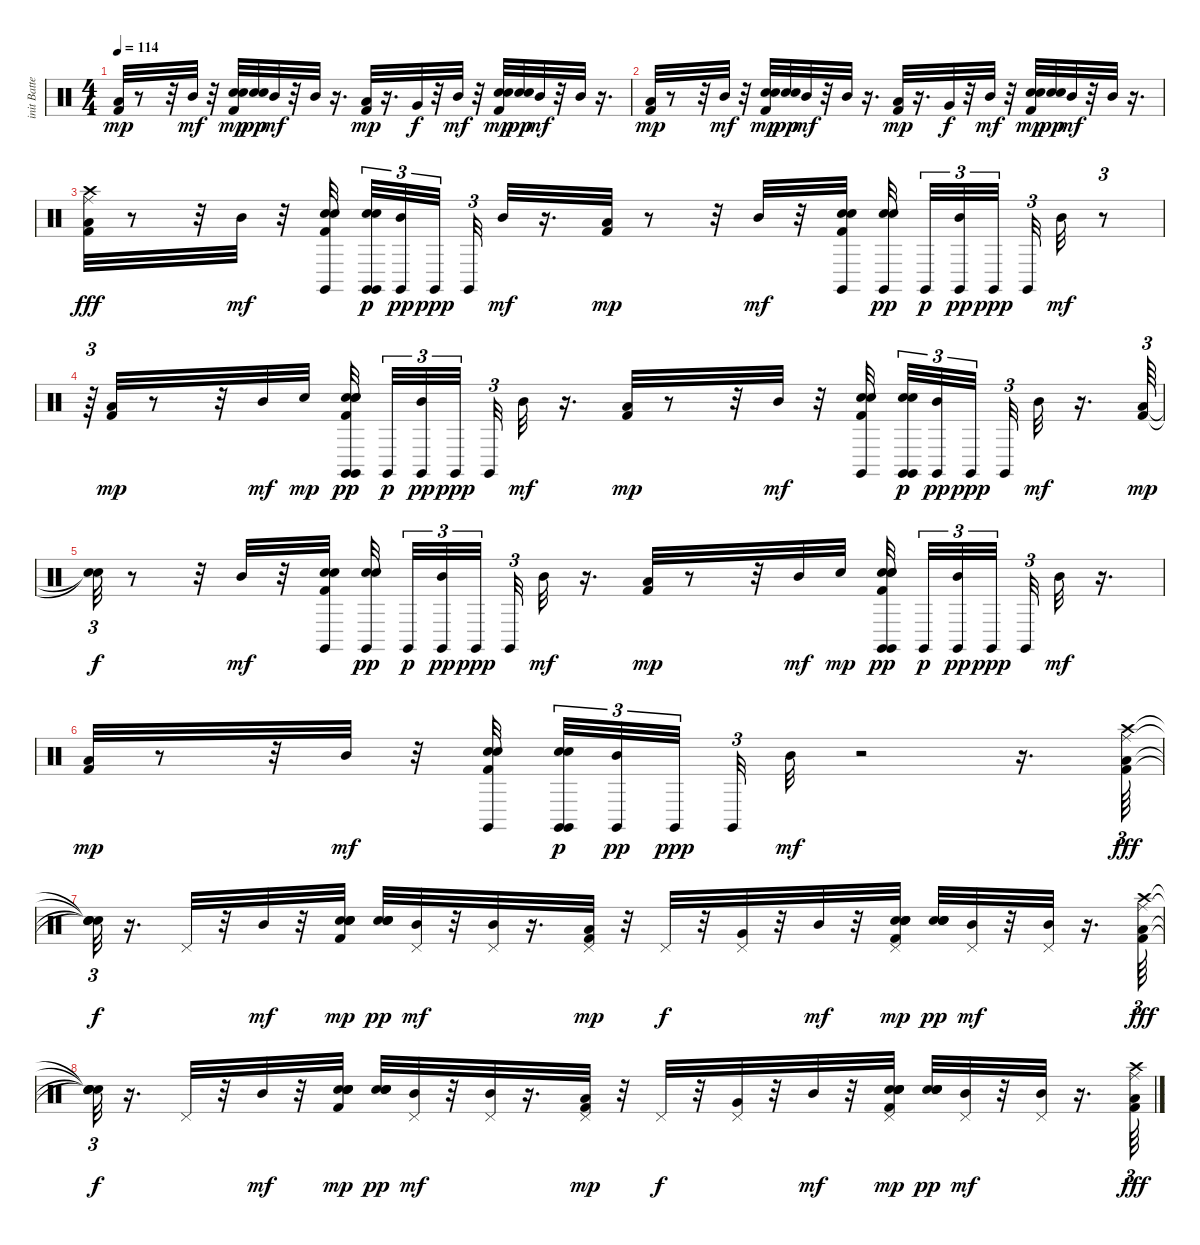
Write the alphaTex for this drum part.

\track ("init Batterie" "init Batte") {instrument percussion}
\staff {score}
\articulation defaults
\ts (4 4)
\tempo 114
\clef neutral
\ks c
("Kick (hit) 2" "Low Tom (hit)").32{dy mp} r.8 r.32 "Mid Tom (hit)".32{dy mf} r.32 ("Hand Clap (hit)" "Kick (hit) 2" "Hand Clap (hit)").32{dy mp} ("Hand Clap (hit)" "Hand Clap (hit)").32{dy pp} "Mid Tom (hit)".32{dy mf} r.32 "Mid Tom (hit)".32 r.16{d} ("Kick (hit) 2" "Low Tom (hit)").32{dy mp} r.16{d} "Very Low Tom (hit)".32{dy f} r.32 "Mid Tom (hit)".32{dy mf} r.32 ("Hand Clap (hit)" "Kick (hit) 2" "Hand Clap (hit)").32{dy mp} ("Hand Clap (hit)" "Hand Clap (hit)").32{dy pp} "Mid Tom (hit)".32{dy mf} r.32 "Mid Tom (hit)".32 r.16{d} |
("Kick (hit) 2" "Low Tom (hit)").32{dy mp} r.8 r.32 "Mid Tom (hit)".32{dy mf} r.32 ("Hand Clap (hit)" "Kick (hit) 2" "Hand Clap (hit)").32{dy mp} ("Hand Clap (hit)" "Hand Clap (hit)").32{dy pp} "Mid Tom (hit)".32{dy mf} r.32 "Mid Tom (hit)".32 r.16{d} ("Kick (hit) 2" "Low Tom (hit)").32{dy mp} r.16{d} "Very Low Tom (hit)".32{dy f} r.32 "Mid Tom (hit)".32{dy mf} r.32 ("Hand Clap (hit)" "Kick (hit) 2" "Hand Clap (hit)").32{dy mp} ("Hand Clap (hit)" "Hand Clap (hit)").32{dy pp} "Mid Tom (hit)".32{dy mf} r.32 "Mid Tom (hit)".32 r.16{d} |
("Kick (hit) 2" "Low Tom (hit)" "Crash high (hit)" "Ride (middle)").32{dy fff} r.8 r.32 "Mid Tom (hit)".32{dy mf} r.32 ("Hand Clap (hit)" "Kick (hit) 2" "Hand Clap (hit)" "Claves (hit)").32 ("Hand Clap (hit)" "Claves (hit)" "Hand Clap (hit)" "Claves (hit)").32{tu (3 2) dy p} ("Mid Tom (hit)" "Claves (hit)").32{tu (3 2) dy pp} "Claves (hit)".32{tu (3 2) dy ppp} "Claves (hit)".32{tu (3 2)} "Mid Tom (hit)".32{dy mf} r.16{d} ("Kick (hit) 2" "Low Tom (hit)").32{dy mp} r.8 r.32 "Mid Tom (hit)".32{dy mf} r.32 ("Hand Clap (hit)" "Kick (hit) 2" "Hand Clap (hit)" "Claves (hit)").32 ("Hand Clap (hit)" "Claves (hit)" "Hand Clap (hit)").32{dy pp} "Claves (hit)".32{tu (3 2) dy p} ("Mid Tom (hit)" "Claves (hit)").32{tu (3 2) dy pp} "Claves (hit)".32{tu (3 2) dy ppp} "Claves (hit)".32{tu (3 2)} "Mid Tom (hit)".32{dy mf} r.8{tu (3 2)} |
r.64{tu (3 2)} ("Kick (hit) 2" "Low Tom (hit)").32{dy mp} r.8 r.32 "Mid Tom (hit)".32{dy mf} "Hand Clap (hit)".32{dy mp} ("Kick (hit) 2" "Hand Clap (hit)" "Claves (hit)" "Hand Clap (hit)" "Claves (hit)" "Hand Clap (hit)").32{dy pp} "Claves (hit)".32{tu (3 2) dy p} ("Mid Tom (hit)" "Claves (hit)").32{tu (3 2) dy pp} "Claves (hit)".32{tu (3 2) dy ppp} "Claves (hit)".32{tu (3 2)} "Mid Tom (hit)".32{dy mf} r.16{d} ("Kick (hit) 2" "Low Tom (hit)").32{dy mp} r.8 r.32 "Mid Tom (hit)".32{dy mf} r.32 ("Hand Clap (hit)" "Kick (hit) 2" "Hand Clap (hit)" "Claves (hit)").32 ("Hand Clap (hit)" "Claves (hit)" "Hand Clap (hit)" "Claves (hit)").32{tu (3 2) dy p} ("Mid Tom (hit)" "Claves (hit)").32{tu (3 2) dy pp} "Claves (hit)".32{tu (3 2) dy ppp} "Claves (hit)".32{tu (3 2)} "Mid Tom (hit)".32{dy mf} r.16{d} ("Kick (hit) 2" "Low Tom (hit)").64{tu (3 2) dy mp} |
("Snare (hit)"{t} "Snare (hit)"{t}).32{tu (3 2) dy f} r.8 r.32 "Mid Tom (hit)".32{dy mf} r.32 ("Hand Clap (hit)" "Kick (hit) 2" "Hand Clap (hit)" "Claves (hit)").32 ("Hand Clap (hit)" "Claves (hit)" "Hand Clap (hit)").32{dy pp} "Claves (hit)".32{tu (3 2) dy p} ("Mid Tom (hit)" "Claves (hit)").32{tu (3 2) dy pp} "Claves (hit)".32{tu (3 2) dy ppp} "Claves (hit)".32{tu (3 2)} "Mid Tom (hit)".32{dy mf} r.16{d} ("Kick (hit) 2" "Low Tom (hit)").32{dy mp} r.8 r.32 "Mid Tom (hit)".32{dy mf} "Hand Clap (hit)".32{dy mp} ("Kick (hit) 2" "Hand Clap (hit)" "Claves (hit)" "Hand Clap (hit)" "Claves (hit)" "Hand Clap (hit)").32{dy pp} "Claves (hit)".32{tu (3 2) dy p} ("Mid Tom (hit)" "Claves (hit)").32{tu (3 2) dy pp} "Claves (hit)".32{tu (3 2) dy ppp} "Claves (hit)".32{tu (3 2)} "Mid Tom (hit)".32{dy mf} r.16{d} |
("Kick (hit) 2" "Low Tom (hit)").32{dy mp} r.8 r.32 "Mid Tom (hit)".32{dy mf} r.32 ("Hand Clap (hit)" "Kick (hit) 2" "Hand Clap (hit)" "Claves (hit)").32 ("Hand Clap (hit)" "Claves (hit)" "Hand Clap (hit)" "Claves (hit)").32{tu (3 2) dy p} ("Mid Tom (hit)" "Claves (hit)").32{tu (3 2) dy pp} "Claves (hit)".32{tu (3 2) dy ppp} "Claves (hit)".32{tu (3 2)} "Mid Tom (hit)".32{dy mf} r.2 r.16{d} ("Kick (hit) 2" "Low Tom (hit)" "Crash high (hit)" "Ride (middle)").64{tu (3 2) dy fff} |
("Snare (hit)"{t} "Snare (hit)"{t} "Snare (hit)"{t} "Snare (hit)"{t}).32{tu (3 2) dy f} r.16{d} "Pedal Hi-Hat (hit)".32 r.32 "Mid Tom (hit)".32{dy mf} r.32 ("Snare (hit) 2" "Hand Clap (hit)" "Kick (hit) 2" "Snare (hit) 2" "Hand Clap (hit)").32{dy mp} ("Snare (hit) 2" "Snare (hit) 2" "Hand Clap (hit)" "Hand Clap (hit)").32{dy pp} ("Pedal Hi-Hat (hit)" "Mid Tom (hit)").32{dy mf} r.32 ("Pedal Hi-Hat (hit)" "Mid Tom (hit)").32 r.16{d} ("Kick (hit) 2" "Pedal Hi-Hat (hit)" "Low Tom (hit)").32{dy mp} r.32 "Pedal Hi-Hat (hit)".32{dy f} r.32 ("Very Low Tom (hit)" "Pedal Hi-Hat (hit)").32 r.32 "Mid Tom (hit)".32{dy mf} r.32 ("Snare (hit) 2" "Hand Clap (hit)" "Kick (hit) 2" "Snare (hit) 2" "Hand Clap (hit)" "Pedal Hi-Hat (hit)").32{dy mp} ("Snare (hit) 2" "Snare (hit) 2" "Hand Clap (hit)" "Hand Clap (hit)").32{dy pp} ("Pedal Hi-Hat (hit)" "Mid Tom (hit)").32{dy mf} r.32 ("Pedal Hi-Hat (hit)" "Mid Tom (hit)").32 r.16{d} ("Kick (hit) 2" "Low Tom (hit)" "Crash high (hit)" "Ride (middle)").64{tu (3 2) dy fff} |
("Snare (hit)"{t} "Snare (hit)"{t} "Snare (hit)"{t} "Snare (hit)"{t}).32{tu (3 2) dy f} r.16{d} "Pedal Hi-Hat (hit)".32 r.32 "Mid Tom (hit)".32{dy mf} r.32 ("Snare (hit) 2" "Hand Clap (hit)" "Kick (hit) 2" "Snare (hit) 2" "Hand Clap (hit)").32{dy mp} ("Snare (hit) 2" "Snare (hit) 2" "Hand Clap (hit)" "Hand Clap (hit)").32{dy pp} ("Pedal Hi-Hat (hit)" "Mid Tom (hit)").32{dy mf} r.32 ("Pedal Hi-Hat (hit)" "Mid Tom (hit)").32 r.16{d} ("Kick (hit) 2" "Pedal Hi-Hat (hit)" "Low Tom (hit)").32{dy mp} r.32 "Pedal Hi-Hat (hit)".32{dy f} r.32 ("Very Low Tom (hit)" "Pedal Hi-Hat (hit)").32 r.32 "Mid Tom (hit)".32{dy mf} r.32 ("Snare (hit) 2" "Hand Clap (hit)" "Kick (hit) 2" "Snare (hit) 2" "Hand Clap (hit)" "Pedal Hi-Hat (hit)").32{dy mp} ("Snare (hit) 2" "Snare (hit) 2" "Hand Clap (hit)" "Hand Clap (hit)").32{dy pp} ("Pedal Hi-Hat (hit)" "Mid Tom (hit)").32{dy mf} r.32 ("Pedal Hi-Hat (hit)" "Mid Tom (hit)").32 r.16{d} ("Kick (hit) 2" "Low Tom (hit)" "Crash high (hit)" "Ride (middle)").64{tu (3 2) dy fff}
